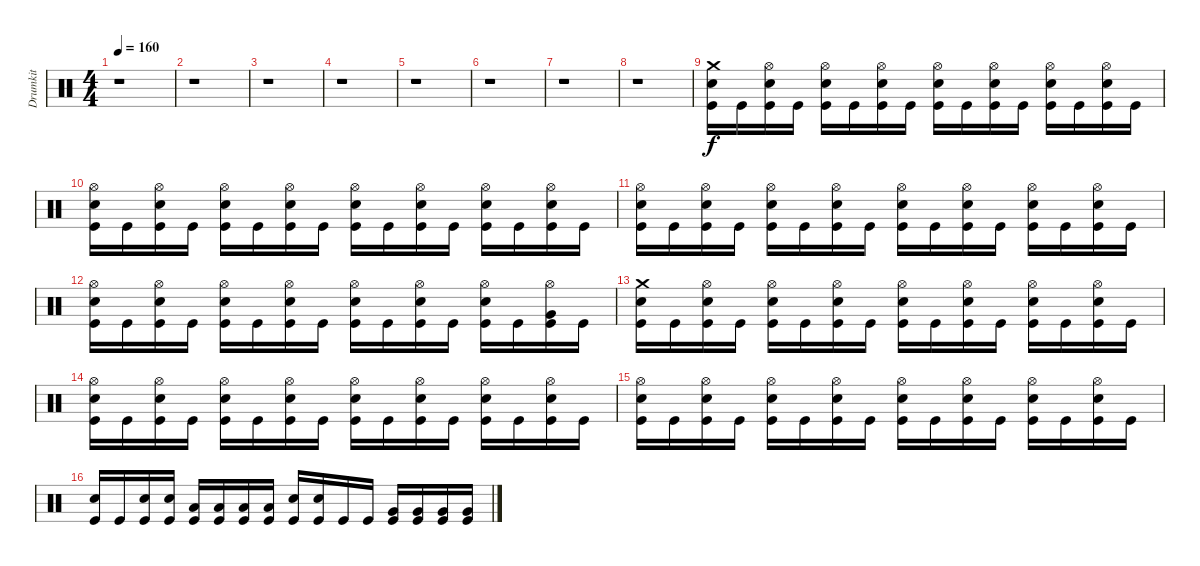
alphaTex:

\track ("Drumkit" "Drumkit") {instrument percussion}
\staff {score}
\articulation defaults
\ts (4 4)
\tempo 160
\clef neutral
\ks c
r.1{dy f} |
r.1 |
r.1 |
r.1 |
r.1 |
r.1 |
r.1 |
r.1 |
("Crash medium (hit)" "Snare (hit) 2" "Kick (hit)").16 "Kick (hit)".16 ("Hi-Hat (open)" "Snare (hit) 2" "Kick (hit)").16 "Kick (hit)".16 ("Hi-Hat (open)" "Snare (hit) 2" "Kick (hit)").16 "Kick (hit)".16 ("Hi-Hat (open)" "Snare (hit) 2" "Kick (hit)").16 "Kick (hit)".16 ("Hi-Hat (open)" "Snare (hit) 2" "Kick (hit)").16 "Kick (hit)".16 ("Hi-Hat (open)" "Snare (hit) 2" "Kick (hit)").16 "Kick (hit)".16 ("Hi-Hat (open)" "Snare (hit) 2" "Kick (hit)").16 "Kick (hit)".16 ("Hi-Hat (open)" "Snare (hit) 2" "Kick (hit)").16 "Kick (hit)".16 |
("Hi-Hat (open)" "Snare (hit) 2" "Kick (hit)").16 "Kick (hit)".16 ("Hi-Hat (open)" "Snare (hit) 2" "Kick (hit)").16 "Kick (hit)".16 ("Hi-Hat (open)" "Snare (hit) 2" "Kick (hit)").16 "Kick (hit)".16 ("Hi-Hat (open)" "Snare (hit) 2" "Kick (hit)").16 "Kick (hit)".16 ("Hi-Hat (open)" "Snare (hit) 2" "Kick (hit)").16 "Kick (hit)".16 ("Hi-Hat (open)" "Snare (hit) 2" "Kick (hit)").16 "Kick (hit)".16 ("Hi-Hat (open)" "Snare (hit) 2" "Kick (hit)").16 "Kick (hit)".16 ("Hi-Hat (open)" "Snare (hit) 2" "Kick (hit)").16 "Kick (hit)".16 |
("Hi-Hat (open)" "Snare (hit) 2" "Kick (hit)").16 "Kick (hit)".16 ("Hi-Hat (open)" "Snare (hit) 2" "Kick (hit)").16 "Kick (hit)".16 ("Hi-Hat (open)" "Snare (hit) 2" "Kick (hit)").16 "Kick (hit)".16 ("Hi-Hat (open)" "Snare (hit) 2" "Kick (hit)").16 "Kick (hit)".16 ("Hi-Hat (open)" "Snare (hit) 2" "Kick (hit)").16 "Kick (hit)".16 ("Hi-Hat (open)" "Snare (hit) 2" "Kick (hit)").16 "Kick (hit)".16 ("Hi-Hat (open)" "Snare (hit) 2" "Kick (hit)").16 "Kick (hit)".16 ("Hi-Hat (open)" "Snare (hit) 2" "Kick (hit)").16 "Kick (hit)".16 |
("Hi-Hat (open)" "Snare (hit) 2" "Kick (hit)").16 "Kick (hit)".16 ("Hi-Hat (open)" "Snare (hit) 2" "Kick (hit)").16 "Kick (hit)".16 ("Hi-Hat (open)" "Snare (hit) 2" "Kick (hit)").16 "Kick (hit)".16 ("Hi-Hat (open)" "Snare (hit) 2" "Kick (hit)").16 "Kick (hit)".16 ("Hi-Hat (open)" "Snare (hit) 2" "Kick (hit)").16 "Kick (hit)".16 ("Hi-Hat (open)" "Snare (hit) 2" "Kick (hit)").16 "Kick (hit)".16 ("Hi-Hat (open)" "Snare (hit) 2" "Kick (hit)").16 "Kick (hit)".16 ("Very Low Tom (hit)" "Hi-Hat (open)" "Kick (hit)").16 "Kick (hit)".16 |
("Crash medium (hit)" "Snare (hit) 2" "Kick (hit)").16 "Kick (hit)".16 ("Hi-Hat (open)" "Snare (hit) 2" "Kick (hit)").16 "Kick (hit)".16 ("Hi-Hat (open)" "Snare (hit) 2" "Kick (hit)").16 "Kick (hit)".16 ("Hi-Hat (open)" "Snare (hit) 2" "Kick (hit)").16 "Kick (hit)".16 ("Hi-Hat (open)" "Snare (hit) 2" "Kick (hit)").16 "Kick (hit)".16 ("Hi-Hat (open)" "Snare (hit) 2" "Kick (hit)").16 "Kick (hit)".16 ("Hi-Hat (open)" "Snare (hit) 2" "Kick (hit)").16 "Kick (hit)".16 ("Hi-Hat (open)" "Snare (hit) 2" "Kick (hit)").16 "Kick (hit)".16 |
("Hi-Hat (open)" "Snare (hit) 2" "Kick (hit)").16 "Kick (hit)".16 ("Hi-Hat (open)" "Snare (hit) 2" "Kick (hit)").16 "Kick (hit)".16 ("Hi-Hat (open)" "Snare (hit) 2" "Kick (hit)").16 "Kick (hit)".16 ("Hi-Hat (open)" "Snare (hit) 2" "Kick (hit)").16 "Kick (hit)".16 ("Hi-Hat (open)" "Snare (hit) 2" "Kick (hit)").16 "Kick (hit)".16 ("Hi-Hat (open)" "Snare (hit) 2" "Kick (hit)").16 "Kick (hit)".16 ("Hi-Hat (open)" "Snare (hit) 2" "Kick (hit)").16 "Kick (hit)".16 ("Hi-Hat (open)" "Snare (hit) 2" "Kick (hit)").16 "Kick (hit)".16 |
("Hi-Hat (open)" "Snare (hit) 2" "Kick (hit)").16 "Kick (hit)".16 ("Hi-Hat (open)" "Snare (hit) 2" "Kick (hit)").16 "Kick (hit)".16 ("Hi-Hat (open)" "Snare (hit) 2" "Kick (hit)").16 "Kick (hit)".16 ("Hi-Hat (open)" "Snare (hit) 2" "Kick (hit)").16 "Kick (hit)".16 ("Hi-Hat (open)" "Snare (hit) 2" "Kick (hit)").16 "Kick (hit)".16 ("Hi-Hat (open)" "Snare (hit) 2" "Kick (hit)").16 "Kick (hit)".16 ("Hi-Hat (open)" "Snare (hit) 2" "Kick (hit)").16 "Kick (hit)".16 ("Hi-Hat (open)" "Snare (hit) 2" "Kick (hit)").16 "Kick (hit)".16 |
("Snare (hit) 2" "Kick (hit)").16 "Kick (hit)".16 ("Snare (hit) 2" "Kick (hit)").16 ("Snare (hit) 2" "Kick (hit)").16 ("Low Tom (hit)" "Kick (hit)").16 ("Low Tom (hit)" "Kick (hit)").16 ("Low Tom (hit)" "Kick (hit)").16 ("Low Tom (hit)" "Kick (hit)").16 ("Snare (hit) 2" "Kick (hit)").16 ("Snare (hit) 2" "Kick (hit)").16 "Kick (hit)".16 "Kick (hit)".16 ("Very Low Tom (hit)" "Kick (hit)").16 ("Very Low Tom (hit)" "Kick (hit)").16 ("Very Low Tom (hit)" "Kick (hit)").16 ("Very Low Tom (hit)" "Kick (hit)").16
